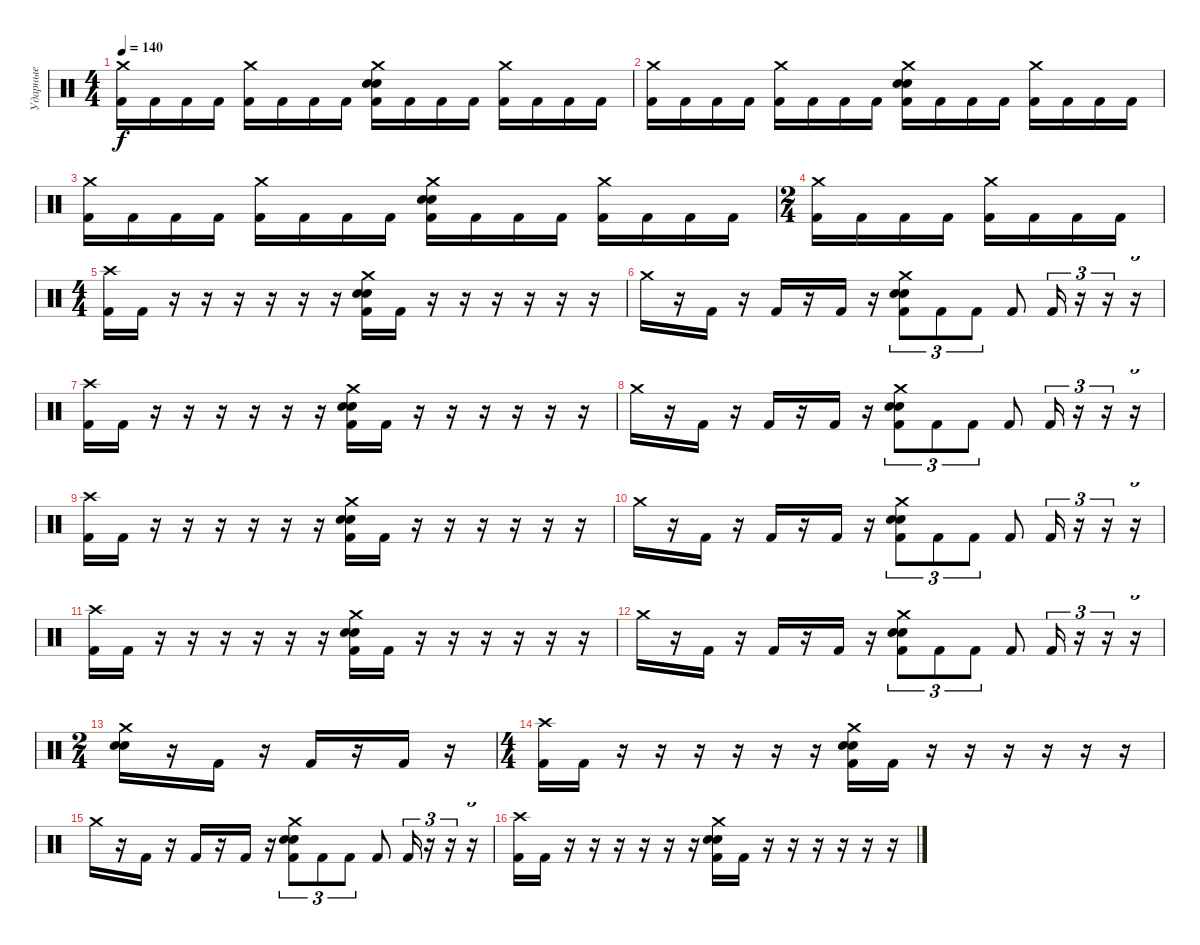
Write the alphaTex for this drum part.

\track ("Ударные" "Ударные") {instrument percussion}
\staff {score}
\articulation defaults
\ts (4 4)
\tempo 140
\clef neutral
\ks c
("Crash medium (hit)" "Kick (hit) 2").16{dy f} "Kick (hit) 2".16 "Kick (hit) 2".16 "Kick (hit) 2".16 ("Crash medium (hit)" "Kick (hit) 2").16 "Kick (hit) 2".16 "Kick (hit) 2".16 "Kick (hit) 2".16 ("Crash medium (hit)" "Electric Snare (hit)" "Snare (hit) 2" "Kick (hit) 2").16 "Kick (hit) 2".16 "Kick (hit) 2".16 "Kick (hit) 2".16 ("Crash medium (hit)" "Kick (hit) 2").16 "Kick (hit) 2".16 "Kick (hit) 2".16 "Kick (hit) 2".16 |
("Crash medium (hit)" "Kick (hit) 2").16 "Kick (hit) 2".16 "Kick (hit) 2".16 "Kick (hit) 2".16 ("Crash medium (hit)" "Kick (hit) 2").16 "Kick (hit) 2".16 "Kick (hit) 2".16 "Kick (hit) 2".16 ("Crash medium (hit)" "Electric Snare (hit)" "Snare (hit) 2" "Kick (hit) 2").16 "Kick (hit) 2".16 "Kick (hit) 2".16 "Kick (hit) 2".16 ("Crash medium (hit)" "Kick (hit) 2").16 "Kick (hit) 2".16 "Kick (hit) 2".16 "Kick (hit) 2".16 |
("Crash medium (hit)" "Kick (hit) 2").16 "Kick (hit) 2".16 "Kick (hit) 2".16 "Kick (hit) 2".16 ("Crash medium (hit)" "Kick (hit) 2").16 "Kick (hit) 2".16 "Kick (hit) 2".16 "Kick (hit) 2".16 ("Crash medium (hit)" "Electric Snare (hit)" "Snare (hit) 2" "Kick (hit) 2").16 "Kick (hit) 2".16 "Kick (hit) 2".16 "Kick (hit) 2".16 ("Crash medium (hit)" "Kick (hit) 2").16 "Kick (hit) 2".16 "Kick (hit) 2".16 "Kick (hit) 2".16 |
\ts (2 4)
("Crash medium (hit)" "Kick (hit) 2").16 "Kick (hit) 2".16 "Kick (hit) 2".16 "Kick (hit) 2".16 ("Crash medium (hit)" "Kick (hit) 2").16 "Kick (hit) 2".16 "Kick (hit) 2".16 "Kick (hit) 2".16 |
\ts (4 4)
("Crash high (hit)" "Kick (hit) 2").16 "Kick (hit) 2".16 r.16 r.16 r.16 r.16 r.16 r.16 ("Crash medium (hit)" "Electric Snare (hit)" "Snare (hit) 2" "Kick (hit) 2").16 "Kick (hit) 2".16 r.16 r.16 r.16 r.16 r.16 r.16 |
"Crash medium (hit)".16 r.16 "Kick (hit) 2".16 r.16 "Kick (hit) 2".16 r.16 "Kick (hit) 2".16 r.16 ("Crash medium (hit)" "Snare (hit) 2" "Electric Snare (hit)" "Kick (hit) 2").8{tu (3 2)} "Kick (hit) 2".8{tu (3 2)} "Kick (hit) 2".8{tu (3 2)} "Kick (hit) 2".8 "Kick (hit) 2".16{tu (3 2)} r.16{tu (3 2)} r.16{tu (3 2)} r.16{tu (3 2)} |
("Crash high (hit)" "Kick (hit) 2").16 "Kick (hit) 2".16 r.16 r.16 r.16 r.16 r.16 r.16 ("Crash medium (hit)" "Electric Snare (hit)" "Snare (hit) 2" "Kick (hit) 2").16 "Kick (hit) 2".16 r.16 r.16 r.16 r.16 r.16 r.16 |
"Crash medium (hit)".16 r.16 "Kick (hit) 2".16 r.16 "Kick (hit) 2".16 r.16 "Kick (hit) 2".16 r.16 ("Crash medium (hit)" "Snare (hit) 2" "Electric Snare (hit)" "Kick (hit) 2").8{tu (3 2)} "Kick (hit) 2".8{tu (3 2)} "Kick (hit) 2".8{tu (3 2)} "Kick (hit) 2".8 "Kick (hit) 2".16{tu (3 2)} r.16{tu (3 2)} r.16{tu (3 2)} r.16{tu (3 2)} |
("Crash high (hit)" "Kick (hit) 2").16 "Kick (hit) 2".16 r.16 r.16 r.16 r.16 r.16 r.16 ("Crash medium (hit)" "Electric Snare (hit)" "Snare (hit) 2" "Kick (hit) 2").16 "Kick (hit) 2".16 r.16 r.16 r.16 r.16 r.16 r.16 |
"Crash medium (hit)".16 r.16 "Kick (hit) 2".16 r.16 "Kick (hit) 2".16 r.16 "Kick (hit) 2".16 r.16 ("Crash medium (hit)" "Snare (hit) 2" "Electric Snare (hit)" "Kick (hit) 2").8{tu (3 2)} "Kick (hit) 2".8{tu (3 2)} "Kick (hit) 2".8{tu (3 2)} "Kick (hit) 2".8 "Kick (hit) 2".16{tu (3 2)} r.16{tu (3 2)} r.16{tu (3 2)} r.16{tu (3 2)} |
("Crash high (hit)" "Kick (hit) 2").16 "Kick (hit) 2".16 r.16 r.16 r.16 r.16 r.16 r.16 ("Crash medium (hit)" "Electric Snare (hit)" "Snare (hit) 2" "Kick (hit) 2").16 "Kick (hit) 2".16 r.16 r.16 r.16 r.16 r.16 r.16 |
"Crash medium (hit)".16 r.16 "Kick (hit) 2".16 r.16 "Kick (hit) 2".16 r.16 "Kick (hit) 2".16 r.16 ("Crash medium (hit)" "Snare (hit) 2" "Electric Snare (hit)" "Kick (hit) 2").8{tu (3 2)} "Kick (hit) 2".8{tu (3 2)} "Kick (hit) 2".8{tu (3 2)} "Kick (hit) 2".8 "Kick (hit) 2".16{tu (3 2)} r.16{tu (3 2)} r.16{tu (3 2)} r.16{tu (3 2)} |
\ts (2 4)
("Crash medium (hit)" "Electric Snare (hit)" "Snare (hit) 2").16 r.16 "Kick (hit) 2".16 r.16 "Kick (hit) 2".16 r.16 "Kick (hit) 2".16 r.16 |
\ts (4 4)
("Crash high (hit)" "Kick (hit) 2").16 "Kick (hit) 2".16 r.16 r.16 r.16 r.16 r.16 r.16 ("Crash medium (hit)" "Electric Snare (hit)" "Snare (hit) 2" "Kick (hit) 2").16 "Kick (hit) 2".16 r.16 r.16 r.16 r.16 r.16 r.16 |
"Crash medium (hit)".16 r.16 "Kick (hit) 2".16 r.16 "Kick (hit) 2".16 r.16 "Kick (hit) 2".16 r.16 ("Crash medium (hit)" "Snare (hit) 2" "Electric Snare (hit)" "Kick (hit) 2").8{tu (3 2)} "Kick (hit) 2".8{tu (3 2)} "Kick (hit) 2".8{tu (3 2)} "Kick (hit) 2".8 "Kick (hit) 2".16{tu (3 2)} r.16{tu (3 2)} r.16{tu (3 2)} r.16{tu (3 2)} |
("Crash high (hit)" "Kick (hit) 2").16 "Kick (hit) 2".16 r.16 r.16 r.16 r.16 r.16 r.16 ("Crash medium (hit)" "Electric Snare (hit)" "Snare (hit) 2" "Kick (hit) 2").16 "Kick (hit) 2".16 r.16 r.16 r.16 r.16 r.16 r.16
